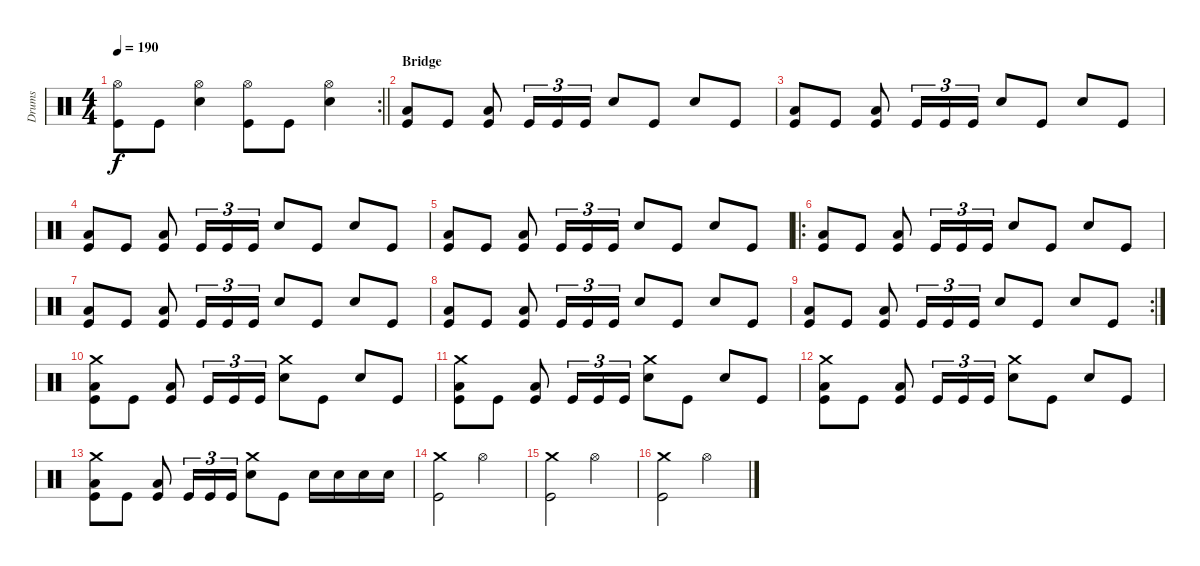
\track ("Drums" "Drums") {instrument percussion}
\staff {score}
\articulation defaults
\rc 2
\ts (4 4)
\tempo 190
\clef neutral
\barLineRight lightlight
\ks c
("Hi-Hat (open)" "Kick (hit)").8{dy f} "Kick (hit)".8 ("Hi-Hat (open)" "Snare (hit) 2").4 ("Hi-Hat (open)" "Kick (hit)").8 "Kick (hit)".8 ("Hi-Hat (open)" "Snare (hit) 2").4 |
\section ("" "Bridge")
("Low Floor Tom (hit)" "Kick (hit)").8 "Kick (hit)".8 ("Low Floor Tom (hit)" "Kick (hit)").8 "Kick (hit)".16{tu (3 2)} "Kick (hit)".16{tu (3 2)} "Kick (hit)".16{tu (3 2)} "Snare (hit) 2".8 "Kick (hit)".8 "Snare (hit) 2".8 "Kick (hit)".8 |
("Low Floor Tom (hit)" "Kick (hit)").8 "Kick (hit)".8 ("Low Floor Tom (hit)" "Kick (hit)").8 "Kick (hit)".16{tu (3 2)} "Kick (hit)".16{tu (3 2)} "Kick (hit)".16{tu (3 2)} "Snare (hit) 2".8 "Kick (hit)".8 "Snare (hit) 2".8 "Kick (hit)".8 |
("Low Floor Tom (hit)" "Kick (hit)").8 "Kick (hit)".8 ("Low Floor Tom (hit)" "Kick (hit)").8 "Kick (hit)".16{tu (3 2)} "Kick (hit)".16{tu (3 2)} "Kick (hit)".16{tu (3 2)} "Snare (hit) 2".8 "Kick (hit)".8 "Snare (hit) 2".8 "Kick (hit)".8 |
("Low Floor Tom (hit)" "Kick (hit)").8 "Kick (hit)".8 ("Low Floor Tom (hit)" "Kick (hit)").8 "Kick (hit)".16{tu (3 2)} "Kick (hit)".16{tu (3 2)} "Kick (hit)".16{tu (3 2)} "Snare (hit) 2".8 "Kick (hit)".8 "Snare (hit) 2".8 "Kick (hit)".8 |
\ro
("Low Floor Tom (hit)" "Kick (hit)").8 "Kick (hit)".8 ("Low Floor Tom (hit)" "Kick (hit)").8 "Kick (hit)".16{tu (3 2)} "Kick (hit)".16{tu (3 2)} "Kick (hit)".16{tu (3 2)} "Snare (hit) 2".8 "Kick (hit)".8 "Snare (hit) 2".8 "Kick (hit)".8 |
("Low Floor Tom (hit)" "Kick (hit)").8 "Kick (hit)".8 ("Low Floor Tom (hit)" "Kick (hit)").8 "Kick (hit)".16{tu (3 2)} "Kick (hit)".16{tu (3 2)} "Kick (hit)".16{tu (3 2)} "Snare (hit) 2".8 "Kick (hit)".8 "Snare (hit) 2".8 "Kick (hit)".8 |
("Low Floor Tom (hit)" "Kick (hit)").8 "Kick (hit)".8 ("Low Floor Tom (hit)" "Kick (hit)").8 "Kick (hit)".16{tu (3 2)} "Kick (hit)".16{tu (3 2)} "Kick (hit)".16{tu (3 2)} "Snare (hit) 2".8 "Kick (hit)".8 "Snare (hit) 2".8 "Kick (hit)".8 |
\rc 2
("Low Floor Tom (hit)" "Kick (hit)").8 "Kick (hit)".8 ("Low Floor Tom (hit)" "Kick (hit)").8 "Kick (hit)".16{tu (3 2)} "Kick (hit)".16{tu (3 2)} "Kick (hit)".16{tu (3 2)} "Snare (hit) 2".8 "Kick (hit)".8 "Snare (hit) 2".8 "Kick (hit)".8 |
("Crash medium (hit)" "Low Floor Tom (hit)" "Kick (hit)").8 "Kick (hit)".8 ("Low Floor Tom (hit)" "Kick (hit)").8 "Kick (hit)".16{tu (3 2)} "Kick (hit)".16{tu (3 2)} "Kick (hit)".16{tu (3 2)} ("Crash medium (hit)" "Snare (hit) 2").8 "Kick (hit)".8 "Snare (hit) 2".8 "Kick (hit)".8 |
("Crash medium (hit)" "Low Floor Tom (hit)" "Kick (hit)").8 "Kick (hit)".8 ("Low Floor Tom (hit)" "Kick (hit)").8 "Kick (hit)".16{tu (3 2)} "Kick (hit)".16{tu (3 2)} "Kick (hit)".16{tu (3 2)} ("Crash medium (hit)" "Snare (hit) 2").8 "Kick (hit)".8 "Snare (hit) 2".8 "Kick (hit)".8 |
("Crash medium (hit)" "Low Floor Tom (hit)" "Kick (hit)").8 "Kick (hit)".8 ("Low Floor Tom (hit)" "Kick (hit)").8 "Kick (hit)".16{tu (3 2)} "Kick (hit)".16{tu (3 2)} "Kick (hit)".16{tu (3 2)} ("Crash medium (hit)" "Snare (hit) 2").8 "Kick (hit)".8 "Snare (hit) 2".8 "Kick (hit)".8 |
("Crash medium (hit)" "Low Floor Tom (hit)" "Kick (hit)").8 "Kick (hit)".8 ("Low Floor Tom (hit)" "Kick (hit)").8 "Kick (hit)".16{tu (3 2)} "Kick (hit)".16{tu (3 2)} "Kick (hit)".16{tu (3 2)} ("Crash medium (hit)" "Snare (hit) 2").8 "Kick (hit)".8 "Snare (hit) 2".16 "Snare (hit) 2".16 "Snare (hit) 2".16 "Snare (hit) 2".16 |
("Crash medium (hit)" "Kick (hit)").2 "Hi-Hat (open)".2 |
("Crash medium (hit)" "Kick (hit)").2 "Hi-Hat (open)".2 |
("Crash medium (hit)" "Kick (hit)").2 "Hi-Hat (open)".2
